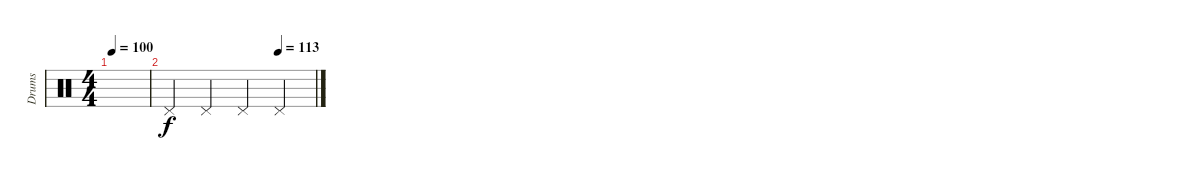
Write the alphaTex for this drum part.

\track ("Drums" "Drums") {instrument percussion}
\staff
\articulation defaults
\ts (4 4)
\tempo 100
\clef neutral
\ks c
|
\tempo (113 0.75)
"Pedal Hi-Hat (hit)".4 "Pedal Hi-Hat (hit)".4 "Pedal Hi-Hat (hit)".4 "Pedal Hi-Hat (hit)".4
